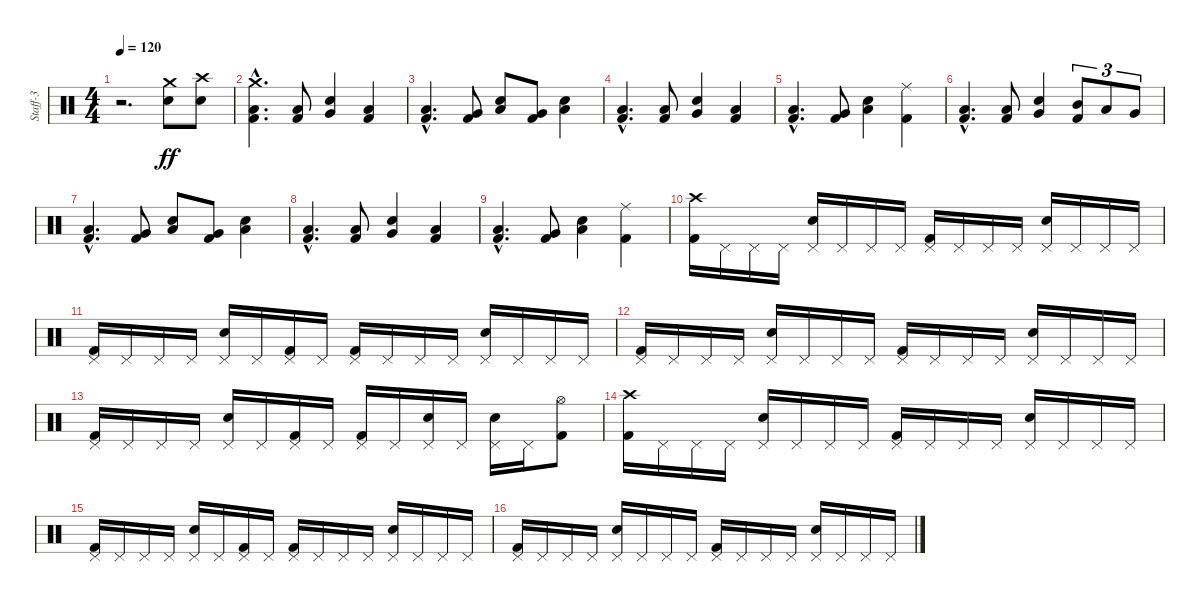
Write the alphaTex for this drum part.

\track ("Staff-3" "Staff-3") {instrument percussion}
\staff {score}
\articulation defaults
\ts (4 4)
\tempo 120
\clef neutral
\ks c
r.2{d dy ff} ("Snare (hit) 2" "Crash medium (hit)").8 ("Snare (hit) 2" "Crash high (hit)").8 |
("Kick (hit) 2"{hac} "Low Tom (hit)"{hac} "Crash medium (hit)"{hac}).4{d balance 8} ("Kick (hit) 2" "Low Tom (hit)").8{balance 1} ("Snare (hit) 2" "Very Low Tom (hit)").4{balance 15} ("Kick (hit) 2" "Low Tom (hit)").4{balance 1} |
("Kick (hit) 2"{hac} "Low Tom (hit)"{hac}).4{d balance 8} ("Kick (hit) 2" "Very Low Tom (hit)").8{balance 15} ("Snare (hit) 2" "Low Floor Tom (hit)").8{balance 1} ("Kick (hit) 2" "Very Low Tom (hit)").8{balance 8} ("Snare (hit) 2" "Low Floor Tom (hit)").4{balance 15} |
("Kick (hit) 2"{hac} "Low Tom (hit)"{hac}).4{d balance 8} ("Kick (hit) 2" "Low Tom (hit)").8{balance 15} ("Snare (hit) 2" "Very Low Tom (hit)").4{balance 1} ("Kick (hit) 2" "Low Tom (hit)").4{balance 15} |
("Kick (hit) 2"{hac} "Low Tom (hit)"{hac}).4{d balance 8} ("Kick (hit) 2" "Very Low Tom (hit)").8{balance 1} ("Snare (hit) 2" "Low Floor Tom (hit)").4{balance 15} ("Kick (hit) 2" "Ride (middle)").4{balance 1} |
("Kick (hit) 2"{hac} "Low Tom (hit)"{hac}).4{d balance 8} ("Kick (hit) 2" "Low Tom (hit)").8{balance 1} ("Snare (hit) 2" "Very Low Tom (hit)").4{balance 15} ("Kick (hit) 2" "Mid Tom (hit)").8{tu (3 2) balance 1} "Low Tom (hit)".8{tu (3 2)} "Very Low Tom (hit)".8{tu (3 2)} |
("Kick (hit) 2"{hac} "Low Tom (hit)"{hac}).4{d balance 8} ("Kick (hit) 2" "Very Low Tom (hit)").8{balance 15} ("Snare (hit) 2" "Low Floor Tom (hit)").8{balance 1} ("Kick (hit) 2" "Very Low Tom (hit)").8{balance 8} ("Snare (hit) 2" "Low Floor Tom (hit)").4{balance 15} |
("Kick (hit) 2"{hac} "Low Tom (hit)"{hac}).4{d balance 8} ("Kick (hit) 2" "Low Tom (hit)").8{balance 15} ("Snare (hit) 2" "Very Low Tom (hit)").4{balance 1} ("Kick (hit) 2" "Low Tom (hit)").4{balance 15} |
("Kick (hit) 2"{hac} "Low Tom (hit)"{hac}).4{d balance 8} ("Kick (hit) 2" "Very Low Tom (hit)").8{balance 1} ("Snare (hit) 2" "Low Floor Tom (hit)").4{balance 15} ("Kick (hit) 2" "Ride (middle)").4{balance 1} |
("Kick (hit) 2" "Crash high (hit)").16{balance 8} "Pedal Hi-Hat (hit)".16 "Pedal Hi-Hat (hit)".16 "Pedal Hi-Hat (hit)".16 ("Snare (hit) 2" "Pedal Hi-Hat (hit)").16 "Pedal Hi-Hat (hit)".16 "Pedal Hi-Hat (hit)".16 "Pedal Hi-Hat (hit)".16 ("Kick (hit) 2" "Pedal Hi-Hat (hit)").16 "Pedal Hi-Hat (hit)".16 "Pedal Hi-Hat (hit)".16 "Pedal Hi-Hat (hit)".16 ("Snare (hit) 2" "Pedal Hi-Hat (hit)").16 "Pedal Hi-Hat (hit)".16 "Pedal Hi-Hat (hit)".16 "Pedal Hi-Hat (hit)".16 |
("Kick (hit) 2" "Pedal Hi-Hat (hit)").16 "Pedal Hi-Hat (hit)".16 "Pedal Hi-Hat (hit)".16 "Pedal Hi-Hat (hit)".16 ("Snare (hit) 2" "Pedal Hi-Hat (hit)").16 "Pedal Hi-Hat (hit)".16 ("Kick (hit) 2" "Pedal Hi-Hat (hit)").16 "Pedal Hi-Hat (hit)".16 ("Kick (hit) 2" "Pedal Hi-Hat (hit)").16 "Pedal Hi-Hat (hit)".16 "Pedal Hi-Hat (hit)".16 "Pedal Hi-Hat (hit)".16 ("Snare (hit) 2" "Pedal Hi-Hat (hit)").16 "Pedal Hi-Hat (hit)".16 "Pedal Hi-Hat (hit)".16 "Pedal Hi-Hat (hit)".16 |
("Kick (hit) 2" "Pedal Hi-Hat (hit)").16 "Pedal Hi-Hat (hit)".16 "Pedal Hi-Hat (hit)".16 "Pedal Hi-Hat (hit)".16 ("Snare (hit) 2" "Pedal Hi-Hat (hit)").16 "Pedal Hi-Hat (hit)".16 "Pedal Hi-Hat (hit)".16 "Pedal Hi-Hat (hit)".16 ("Kick (hit) 2" "Pedal Hi-Hat (hit)").16 "Pedal Hi-Hat (hit)".16 "Pedal Hi-Hat (hit)".16 "Pedal Hi-Hat (hit)".16 ("Snare (hit) 2" "Pedal Hi-Hat (hit)").16 "Pedal Hi-Hat (hit)".16 "Pedal Hi-Hat (hit)".16 "Pedal Hi-Hat (hit)".16 |
("Kick (hit) 2" "Pedal Hi-Hat (hit)").16 "Pedal Hi-Hat (hit)".16 "Pedal Hi-Hat (hit)".16 "Pedal Hi-Hat (hit)".16 ("Snare (hit) 2" "Pedal Hi-Hat (hit)").16 "Pedal Hi-Hat (hit)".16 ("Kick (hit) 2" "Pedal Hi-Hat (hit)").16 "Pedal Hi-Hat (hit)".16 ("Kick (hit) 2" "Pedal Hi-Hat (hit)").16 "Pedal Hi-Hat (hit)".16 ("Snare (hit) 2" "Pedal Hi-Hat (hit)").16 "Pedal Hi-Hat (hit)".16 ("Snare (hit) 2" "Pedal Hi-Hat (hit)").16 "Pedal Hi-Hat (hit)".16 ("Kick (hit) 2" "Hi-Hat (open)").8 |
("Kick (hit) 2" "Crash high (hit)").16 "Pedal Hi-Hat (hit)".16 "Pedal Hi-Hat (hit)".16 "Pedal Hi-Hat (hit)".16 ("Snare (hit) 2" "Pedal Hi-Hat (hit)").16 "Pedal Hi-Hat (hit)".16 "Pedal Hi-Hat (hit)".16 "Pedal Hi-Hat (hit)".16 ("Kick (hit) 2" "Pedal Hi-Hat (hit)").16 "Pedal Hi-Hat (hit)".16 "Pedal Hi-Hat (hit)".16 "Pedal Hi-Hat (hit)".16 ("Snare (hit) 2" "Pedal Hi-Hat (hit)").16 "Pedal Hi-Hat (hit)".16 "Pedal Hi-Hat (hit)".16 "Pedal Hi-Hat (hit)".16 |
("Kick (hit) 2" "Pedal Hi-Hat (hit)").16 "Pedal Hi-Hat (hit)".16 "Pedal Hi-Hat (hit)".16 "Pedal Hi-Hat (hit)".16 ("Snare (hit) 2" "Pedal Hi-Hat (hit)").16 "Pedal Hi-Hat (hit)".16 ("Kick (hit) 2" "Pedal Hi-Hat (hit)").16 "Pedal Hi-Hat (hit)".16 ("Kick (hit) 2" "Pedal Hi-Hat (hit)").16 "Pedal Hi-Hat (hit)".16 "Pedal Hi-Hat (hit)".16 "Pedal Hi-Hat (hit)".16 ("Snare (hit) 2" "Pedal Hi-Hat (hit)").16 "Pedal Hi-Hat (hit)".16 "Pedal Hi-Hat (hit)".16 "Pedal Hi-Hat (hit)".16 |
("Kick (hit) 2" "Pedal Hi-Hat (hit)").16 "Pedal Hi-Hat (hit)".16 "Pedal Hi-Hat (hit)".16 "Pedal Hi-Hat (hit)".16 ("Snare (hit) 2" "Pedal Hi-Hat (hit)").16 "Pedal Hi-Hat (hit)".16 "Pedal Hi-Hat (hit)".16 "Pedal Hi-Hat (hit)".16 ("Kick (hit) 2" "Pedal Hi-Hat (hit)").16 "Pedal Hi-Hat (hit)".16 "Pedal Hi-Hat (hit)".16 "Pedal Hi-Hat (hit)".16 ("Snare (hit) 2" "Pedal Hi-Hat (hit)").16 "Pedal Hi-Hat (hit)".16 "Pedal Hi-Hat (hit)".16 "Pedal Hi-Hat (hit)".16
